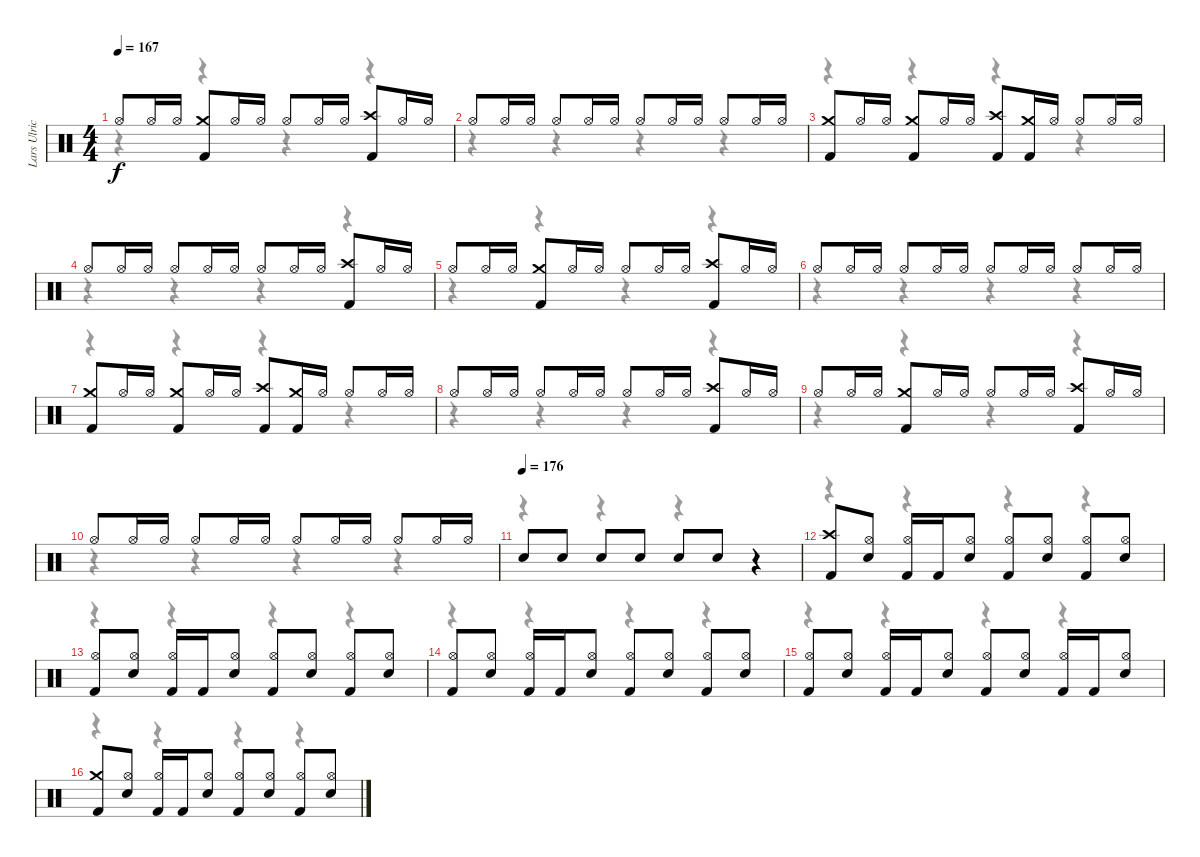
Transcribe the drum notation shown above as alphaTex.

\track ("Lars Ulrich" "Lars Ulric") {instrument percussion}
\staff {score}
\articulation defaults
\voice
\ts (4 4)
\tempo 167
\clef neutral
\ks c "Hi-Hat (open)".8{dy f} "Hi-Hat (open)".16 "Hi-Hat (open)".16
("Crash medium (hit)" "Kick (hit) 2").8 "Hi-Hat (open)".16 "Hi-Hat (open)".16 "Hi-Hat (open)".8 "Hi-Hat (open)".16 "Hi-Hat (open)".16 ("Crash high (hit)" "Kick (hit) 2").8 "Hi-Hat (open)".16 "Hi-Hat (open)".16 |
"Hi-Hat (open)".8 "Hi-Hat (open)".16 "Hi-Hat (open)".16 "Hi-Hat (open)".8 "Hi-Hat (open)".16 "Hi-Hat (open)".16 "Hi-Hat (open)".8 "Hi-Hat (open)".16 "Hi-Hat (open)".16 "Hi-Hat (open)".8 "Hi-Hat (open)".16 "Hi-Hat (open)".16 |
("Kick (hit) 2" "Crash medium (hit)").8 "Hi-Hat (open)".16 "Hi-Hat (open)".16 ("Kick (hit) 2" "Crash medium (hit)").8 "Hi-Hat (open)".16 "Hi-Hat (open)".16 ("Kick (hit) 2" "Crash high (hit)").8 ("Kick (hit) 2" "Crash medium (hit)").16 "Hi-Hat (open)".16 "Hi-Hat (open)".8 "Hi-Hat (open)".16 "Hi-Hat (open)".16 |
"Hi-Hat (open)".8 "Hi-Hat (open)".16 "Hi-Hat (open)".16 "Hi-Hat (open)".8 "Hi-Hat (open)".16 "Hi-Hat (open)".16 "Hi-Hat (open)".8 "Hi-Hat (open)".16 "Hi-Hat (open)".16 ("Crash high (hit)" "Kick (hit) 2").8 "Hi-Hat (open)".16 "Hi-Hat (open)".16 |
"Hi-Hat (open)".8 "Hi-Hat (open)".16 "Hi-Hat (open)".16 ("Crash medium (hit)" "Kick (hit) 2").8 "Hi-Hat (open)".16 "Hi-Hat (open)".16 "Hi-Hat (open)".8 "Hi-Hat (open)".16 "Hi-Hat (open)".16 ("Crash high (hit)" "Kick (hit) 2").8 "Hi-Hat (open)".16 "Hi-Hat (open)".16 |
"Hi-Hat (open)".8 "Hi-Hat (open)".16 "Hi-Hat (open)".16 "Hi-Hat (open)".8 "Hi-Hat (open)".16 "Hi-Hat (open)".16 "Hi-Hat (open)".8 "Hi-Hat (open)".16 "Hi-Hat (open)".16 "Hi-Hat (open)".8 "Hi-Hat (open)".16 "Hi-Hat (open)".16 |
("Kick (hit) 2" "Crash medium (hit)").8 "Hi-Hat (open)".16 "Hi-Hat (open)".16 ("Kick (hit) 2" "Crash medium (hit)").8 "Hi-Hat (open)".16 "Hi-Hat (open)".16 ("Kick (hit) 2" "Crash high (hit)").8 ("Kick (hit) 2" "Crash medium (hit)").16 "Hi-Hat (open)".16 "Hi-Hat (open)".8 "Hi-Hat (open)".16 "Hi-Hat (open)".16 |
"Hi-Hat (open)".8 "Hi-Hat (open)".16 "Hi-Hat (open)".16 "Hi-Hat (open)".8 "Hi-Hat (open)".16 "Hi-Hat (open)".16 "Hi-Hat (open)".8 "Hi-Hat (open)".16 "Hi-Hat (open)".16 ("Crash high (hit)" "Kick (hit) 2").8 "Hi-Hat (open)".16 "Hi-Hat (open)".16 |
"Hi-Hat (open)".8 "Hi-Hat (open)".16 "Hi-Hat (open)".16 ("Crash medium (hit)" "Kick (hit) 2").8 "Hi-Hat (open)".16 "Hi-Hat (open)".16 "Hi-Hat (open)".8 "Hi-Hat (open)".16 "Hi-Hat (open)".16 ("Crash high (hit)" "Kick (hit) 2").8 "Hi-Hat (open)".16 "Hi-Hat (open)".16 |
"Hi-Hat (open)".8 "Hi-Hat (open)".16 "Hi-Hat (open)".16 "Hi-Hat (open)".8 "Hi-Hat (open)".16 "Hi-Hat (open)".16 "Hi-Hat (open)".8 "Hi-Hat (open)".16 "Hi-Hat (open)".16 "Hi-Hat (open)".8 "Hi-Hat (open)".16 "Hi-Hat (open)".16 |
\tempo (176)
"Snare (hit) 2".8 "Snare (hit) 2".8 "Snare (hit) 2".8 "Snare (hit) 2".8 "Snare (hit) 2".8 "Snare (hit) 2".8 r.4 |
("Crash high (hit)" "Kick (hit) 2").8 ("Hi-Hat (open)" "Snare (hit) 2").8 ("Hi-Hat (open)" "Kick (hit) 2").16 "Kick (hit) 2".16 ("Hi-Hat (open)" "Snare (hit) 2").8 ("Hi-Hat (open)" "Kick (hit) 2").8 ("Hi-Hat (open)" "Snare (hit) 2").8 ("Hi-Hat (open)" "Kick (hit) 2").8 ("Hi-Hat (open)" "Snare (hit) 2").8 |
("Hi-Hat (open)" "Kick (hit) 2").8 ("Hi-Hat (open)" "Snare (hit) 2").8 ("Hi-Hat (open)" "Kick (hit) 2").16 "Kick (hit) 2".16 ("Hi-Hat (open)" "Snare (hit) 2").8 ("Hi-Hat (open)" "Kick (hit) 2").8 ("Hi-Hat (open)" "Snare (hit) 2").8 ("Hi-Hat (open)" "Kick (hit) 2").8 ("Hi-Hat (open)" "Snare (hit) 2").8 |
("Kick (hit) 2" "Hi-Hat (open)").8 ("Hi-Hat (open)" "Snare (hit) 2").8 ("Hi-Hat (open)" "Kick (hit) 2").16 "Kick (hit) 2".16 ("Hi-Hat (open)" "Snare (hit) 2").8 ("Hi-Hat (open)" "Kick (hit) 2").8 ("Hi-Hat (open)" "Snare (hit) 2").8 ("Hi-Hat (open)" "Kick (hit) 2").8 ("Hi-Hat (open)" "Snare (hit) 2").8 |
("Kick (hit) 2" "Hi-Hat (open)").8 ("Hi-Hat (open)" "Snare (hit) 2").8 ("Hi-Hat (open)" "Kick (hit) 2").16 "Kick (hit) 2".16 ("Hi-Hat (open)" "Snare (hit) 2").8 ("Hi-Hat (open)" "Kick (hit) 2").8 ("Hi-Hat (open)" "Snare (hit) 2").8 ("Hi-Hat (open)" "Kick (hit) 2").16 "Kick (hit) 2".16 ("Hi-Hat (open)" "Snare (hit) 2").8 |
("Kick (hit) 2" "Crash medium (hit)").8 ("Hi-Hat (open)" "Snare (hit) 2").8 ("Hi-Hat (open)" "Kick (hit) 2").16 "Kick (hit) 2".16 ("Hi-Hat (open)" "Snare (hit) 2").8 ("Hi-Hat (open)" "Kick (hit) 2").8 ("Hi-Hat (open)" "Snare (hit) 2").8 ("Hi-Hat (open)" "Kick (hit) 2").8 ("Hi-Hat (open)" "Snare (hit) 2").8
\voice
\clef neutral
\ottava regular
\simile none
\ks c
r.4{dy f} r.4 r.4 r.4 |
r.4 r.4 r.4 r.4 |
r.4 r.4 r.4 r.4 |
r.4 r.4 r.4 r.4 |
r.4 r.4 r.4 r.4 |
r.4 r.4 r.4 r.4 |
r.4 r.4 r.4 r.4 |
r.4 r.4 r.4 r.4 |
r.4 r.4 r.4 r.4 |
r.4 r.4 r.4 r.4 |
r.4 r.4 r.4 r.4 |
r.4 r.4 r.4 r.4 |
r.4 r.4 r.4 r.4 |
r.4 r.4 r.4 r.4 |
r.4 r.4 r.4 r.4 |
r.4 r.4 r.4 r.4
